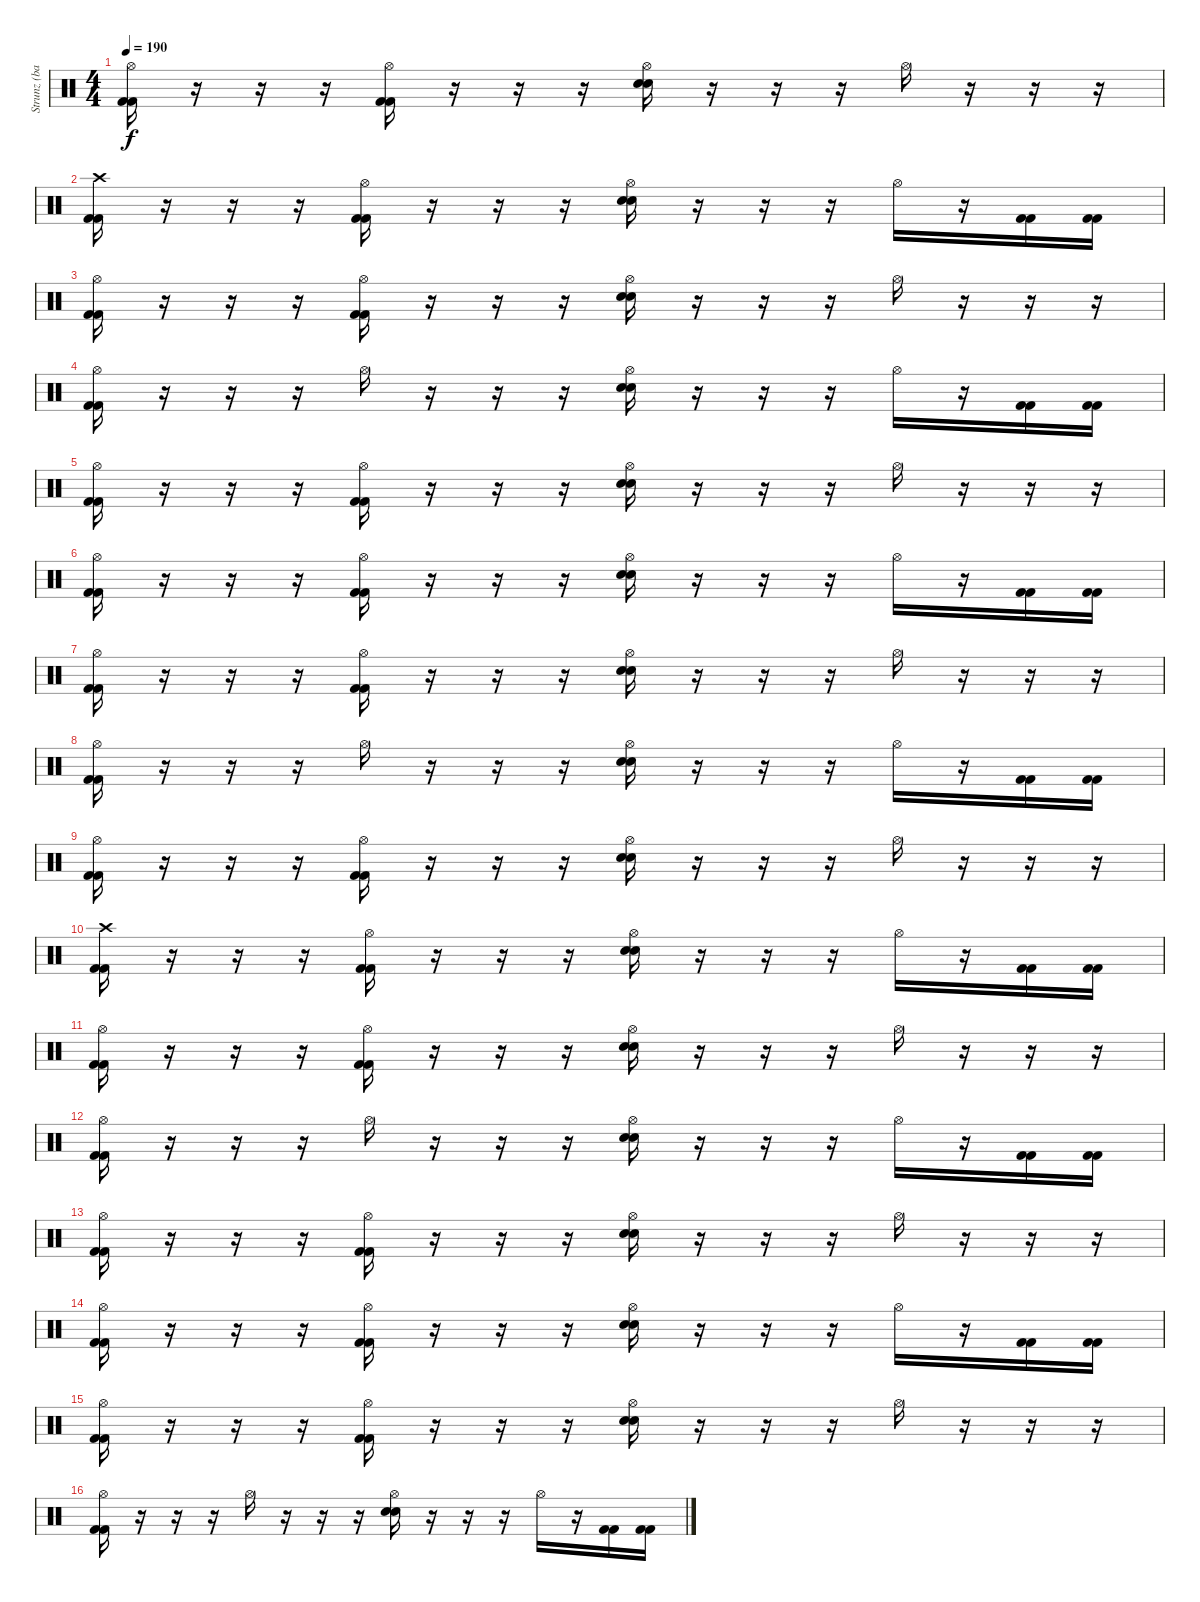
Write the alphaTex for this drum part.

\track ("Strunz (bateria)" "Strunz (ba") {instrument percussion}
\staff {score}
\articulation defaults
\ts (4 4)
\tempo 190
\clef neutral
\ks c
("Hi-Hat (open)" "Kick (hit) 2" "Kick (hit) 2").16{dy f} r.16 r.16 r.16 ("Hi-Hat (open)" "Kick (hit) 2" "Kick (hit) 2").16 r.16 r.16 r.16 ("Hi-Hat (open)" "Snare (hit) 2" "Snare (hit) 2").16 r.16 r.16 r.16 "Hi-Hat (open)".16 r.16 r.16 r.16 |
("Crash high (hit)" "Kick (hit) 2" "Kick (hit) 2").16 r.16 r.16 r.16 ("Hi-Hat (open)" "Kick (hit) 2" "Kick (hit) 2").16 r.16 r.16 r.16 ("Hi-Hat (open)" "Snare (hit) 2" "Snare (hit) 2").16 r.16 r.16 r.16 "Hi-Hat (open)".16 r.16 ("Kick (hit) 2" "Kick (hit) 2").16 ("Kick (hit) 2" "Kick (hit) 2").16 |
("Hi-Hat (open)" "Kick (hit) 2" "Kick (hit) 2").16 r.16 r.16 r.16 ("Hi-Hat (open)" "Kick (hit) 2" "Kick (hit) 2").16 r.16 r.16 r.16 ("Hi-Hat (open)" "Snare (hit) 2" "Snare (hit) 2").16 r.16 r.16 r.16 "Hi-Hat (open)".16 r.16 r.16 r.16 |
("Hi-Hat (open)" "Kick (hit) 2" "Kick (hit) 2").16 r.16 r.16 r.16 "Hi-Hat (open)".16 r.16 r.16 r.16 ("Hi-Hat (open)" "Snare (hit) 2" "Snare (hit) 2").16 r.16 r.16 r.16 "Hi-Hat (open)".16 r.16 ("Kick (hit) 2" "Kick (hit) 2").16 ("Kick (hit) 2" "Kick (hit) 2").16 |
("Hi-Hat (open)" "Kick (hit) 2" "Kick (hit) 2").16 r.16 r.16 r.16 ("Hi-Hat (open)" "Kick (hit) 2" "Kick (hit) 2").16 r.16 r.16 r.16 ("Hi-Hat (open)" "Snare (hit) 2" "Snare (hit) 2").16 r.16 r.16 r.16 "Hi-Hat (open)".16 r.16 r.16 r.16 |
("Hi-Hat (open)" "Kick (hit) 2" "Kick (hit) 2").16 r.16 r.16 r.16 ("Hi-Hat (open)" "Kick (hit) 2" "Kick (hit) 2").16 r.16 r.16 r.16 ("Hi-Hat (open)" "Snare (hit) 2" "Snare (hit) 2").16 r.16 r.16 r.16 "Hi-Hat (open)".16 r.16 ("Kick (hit) 2" "Kick (hit) 2").16 ("Kick (hit) 2" "Kick (hit) 2").16 |
("Hi-Hat (open)" "Kick (hit) 2" "Kick (hit) 2").16 r.16 r.16 r.16 ("Hi-Hat (open)" "Kick (hit) 2" "Kick (hit) 2").16 r.16 r.16 r.16 ("Hi-Hat (open)" "Snare (hit) 2" "Snare (hit) 2").16 r.16 r.16 r.16 "Hi-Hat (open)".16 r.16 r.16 r.16 |
("Hi-Hat (open)" "Kick (hit) 2" "Kick (hit) 2").16 r.16 r.16 r.16 "Hi-Hat (open)".16 r.16 r.16 r.16 ("Hi-Hat (open)" "Snare (hit) 2" "Snare (hit) 2").16 r.16 r.16 r.16 "Hi-Hat (open)".16 r.16 ("Kick (hit) 2" "Kick (hit) 2").16 ("Kick (hit) 2" "Kick (hit) 2").16 |
("Hi-Hat (open)" "Kick (hit) 2" "Kick (hit) 2").16 r.16 r.16 r.16 ("Hi-Hat (open)" "Kick (hit) 2" "Kick (hit) 2").16 r.16 r.16 r.16 ("Hi-Hat (open)" "Snare (hit) 2" "Snare (hit) 2").16 r.16 r.16 r.16 "Hi-Hat (open)".16 r.16 r.16 r.16 |
("Crash high (hit)" "Kick (hit) 2" "Kick (hit) 2").16 r.16 r.16 r.16 ("Hi-Hat (open)" "Kick (hit) 2" "Kick (hit) 2").16 r.16 r.16 r.16 ("Hi-Hat (open)" "Snare (hit) 2" "Snare (hit) 2").16 r.16 r.16 r.16 "Hi-Hat (open)".16 r.16 ("Kick (hit) 2" "Kick (hit) 2").16 ("Kick (hit) 2" "Kick (hit) 2").16 |
("Hi-Hat (open)" "Kick (hit) 2" "Kick (hit) 2").16 r.16 r.16 r.16 ("Hi-Hat (open)" "Kick (hit) 2" "Kick (hit) 2").16 r.16 r.16 r.16 ("Hi-Hat (open)" "Snare (hit) 2" "Snare (hit) 2").16 r.16 r.16 r.16 "Hi-Hat (open)".16 r.16 r.16 r.16 |
("Hi-Hat (open)" "Kick (hit) 2" "Kick (hit) 2").16 r.16 r.16 r.16 "Hi-Hat (open)".16 r.16 r.16 r.16 ("Hi-Hat (open)" "Snare (hit) 2" "Snare (hit) 2").16 r.16 r.16 r.16 "Hi-Hat (open)".16 r.16 ("Kick (hit) 2" "Kick (hit) 2").16 ("Kick (hit) 2" "Kick (hit) 2").16 |
("Hi-Hat (open)" "Kick (hit) 2" "Kick (hit) 2").16 r.16 r.16 r.16 ("Hi-Hat (open)" "Kick (hit) 2" "Kick (hit) 2").16 r.16 r.16 r.16 ("Hi-Hat (open)" "Snare (hit) 2" "Snare (hit) 2").16 r.16 r.16 r.16 "Hi-Hat (open)".16 r.16 r.16 r.16 |
("Hi-Hat (open)" "Kick (hit) 2" "Kick (hit) 2").16 r.16 r.16 r.16 ("Hi-Hat (open)" "Kick (hit) 2" "Kick (hit) 2").16 r.16 r.16 r.16 ("Hi-Hat (open)" "Snare (hit) 2" "Snare (hit) 2").16 r.16 r.16 r.16 "Hi-Hat (open)".16 r.16 ("Kick (hit) 2" "Kick (hit) 2").16 ("Kick (hit) 2" "Kick (hit) 2").16 |
("Hi-Hat (open)" "Kick (hit) 2" "Kick (hit) 2").16 r.16 r.16 r.16 ("Hi-Hat (open)" "Kick (hit) 2" "Kick (hit) 2").16 r.16 r.16 r.16 ("Hi-Hat (open)" "Snare (hit) 2" "Snare (hit) 2").16 r.16 r.16 r.16 "Hi-Hat (open)".16 r.16 r.16 r.16 |
("Hi-Hat (open)" "Kick (hit) 2" "Kick (hit) 2").16 r.16 r.16 r.16 "Hi-Hat (open)".16 r.16 r.16 r.16 ("Hi-Hat (open)" "Snare (hit) 2" "Snare (hit) 2").16 r.16 r.16 r.16 "Hi-Hat (open)".16 r.16 ("Kick (hit) 2" "Kick (hit) 2").16 ("Kick (hit) 2" "Kick (hit) 2").16
